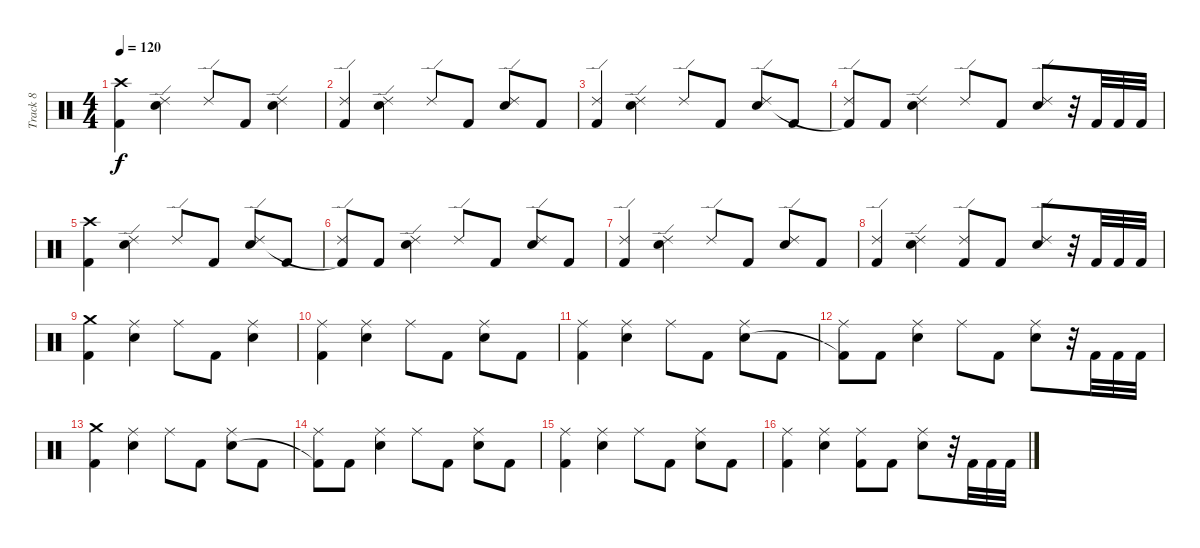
\track ("Track 8" "Track 8") {instrument percussion}
\staff {score}
\articulation defaults
\ts (4 4)
\tempo 120
\clef neutral
\ks c
("Crash high (hit)" "Kick (hit) 2").4{dy f} ("Ride (edge) 2" "Electric Snare (hit)").4 "Ride (edge) 2".8 "Kick (hit) 2".8 ("Ride (edge) 2" "Electric Snare (hit)").4 |
("Ride (edge) 2" "Kick (hit) 2").4 ("Ride (edge) 2" "Electric Snare (hit)").4 "Ride (edge) 2".8 "Kick (hit) 2".8 ("Ride (edge) 2" "Electric Snare (hit)").8 "Kick (hit) 2".8 |
("Ride (edge) 2" "Kick (hit) 2").4 ("Ride (edge) 2" "Electric Snare (hit)").4 "Ride (edge) 2".8 "Kick (hit) 2".8 ("Ride (edge) 2" "Electric Snare (hit)").8 "Kick (hit) 2".8 |
("Ride (edge) 2" "Kick (hit) 2"{t}).8 "Kick (hit) 2".8 ("Ride (edge) 2" "Electric Snare (hit)").4 "Ride (edge) 2".8 "Kick (hit) 2".8 ("Ride (edge) 2" "Electric Snare (hit)").8 r.32 "Kick (hit) 2".32 "Kick (hit) 2".32 "Kick (hit) 2".32 |
("Crash high (hit)" "Kick (hit) 2").4 ("Ride (edge) 2" "Electric Snare (hit)").4 "Ride (edge) 2".8 "Kick (hit) 2".8 ("Ride (edge) 2" "Electric Snare (hit)").8 "Kick (hit) 2".8 |
("Ride (edge) 2" "Kick (hit) 2"{t}).8 "Kick (hit) 2".8 ("Ride (edge) 2" "Electric Snare (hit)").4 "Ride (edge) 2".8 "Kick (hit) 2".8 ("Ride (edge) 2" "Electric Snare (hit)").8 "Kick (hit) 2".8 |
("Ride (edge) 2" "Kick (hit) 2").4 ("Ride (edge) 2" "Electric Snare (hit)").4 "Ride (edge) 2".8 "Kick (hit) 2".8 ("Ride (edge) 2" "Electric Snare (hit)").8 "Kick (hit) 2".8 |
("Ride (edge) 2" "Kick (hit) 2").4 ("Ride (edge) 2" "Electric Snare (hit)").4 ("Ride (edge) 2" "Kick (hit) 2").8 "Kick (hit) 2".8 ("Ride (edge) 2" "Electric Snare (hit)").8 r.32 "Kick (hit) 2".32 "Kick (hit) 2".32 "Kick (hit) 2".32 |
("Crash medium (hit)" "Kick (hit) 2").4 ("Ride (middle)" "Electric Snare (hit)").4 "Ride (middle)".8 "Kick (hit) 2".8 ("Ride (middle)" "Electric Snare (hit)").4 |
("Ride (middle)" "Kick (hit) 2").4 ("Ride (middle)" "Electric Snare (hit)").4 "Ride (middle)".8 "Kick (hit) 2".8 ("Ride (middle)" "Electric Snare (hit)").8 "Kick (hit) 2".8 |
("Ride (middle)" "Kick (hit) 2").4 ("Ride (middle)" "Electric Snare (hit)").4 "Ride (middle)".8 "Kick (hit) 2".8 ("Ride (middle)" "Electric Snare (hit)").8 "Kick (hit) 2".8 |
("Ride (middle)" "Kick (hit) 2"{t}).8 "Kick (hit) 2".8 ("Ride (middle)" "Electric Snare (hit)").4 "Ride (middle)".8 "Kick (hit) 2".8 ("Ride (middle)" "Electric Snare (hit)").8 r.32 "Kick (hit) 2".32 "Kick (hit) 2".32 "Kick (hit) 2".32 |
("Crash medium (hit)" "Kick (hit) 2").4 ("Ride (middle)" "Electric Snare (hit)").4 "Ride (middle)".8 "Kick (hit) 2".8 ("Ride (middle)" "Electric Snare (hit)").8 "Kick (hit) 2".8 |
("Ride (middle)" "Kick (hit) 2"{t}).8 "Kick (hit) 2".8 ("Ride (middle)" "Electric Snare (hit)").4 "Ride (middle)".8 "Kick (hit) 2".8 ("Ride (middle)" "Electric Snare (hit)").8 "Kick (hit) 2".8 |
("Ride (middle)" "Kick (hit) 2").4 ("Ride (middle)" "Electric Snare (hit)").4 "Ride (middle)".8 "Kick (hit) 2".8 ("Ride (middle)" "Electric Snare (hit)").8 "Kick (hit) 2".8 |
("Ride (middle)" "Kick (hit) 2").4 ("Ride (middle)" "Electric Snare (hit)").4 ("Ride (middle)" "Kick (hit) 2").8 "Kick (hit) 2".8 ("Ride (middle)" "Electric Snare (hit)").8 r.32 "Kick (hit) 2".32 "Kick (hit) 2".32 "Kick (hit) 2".32
